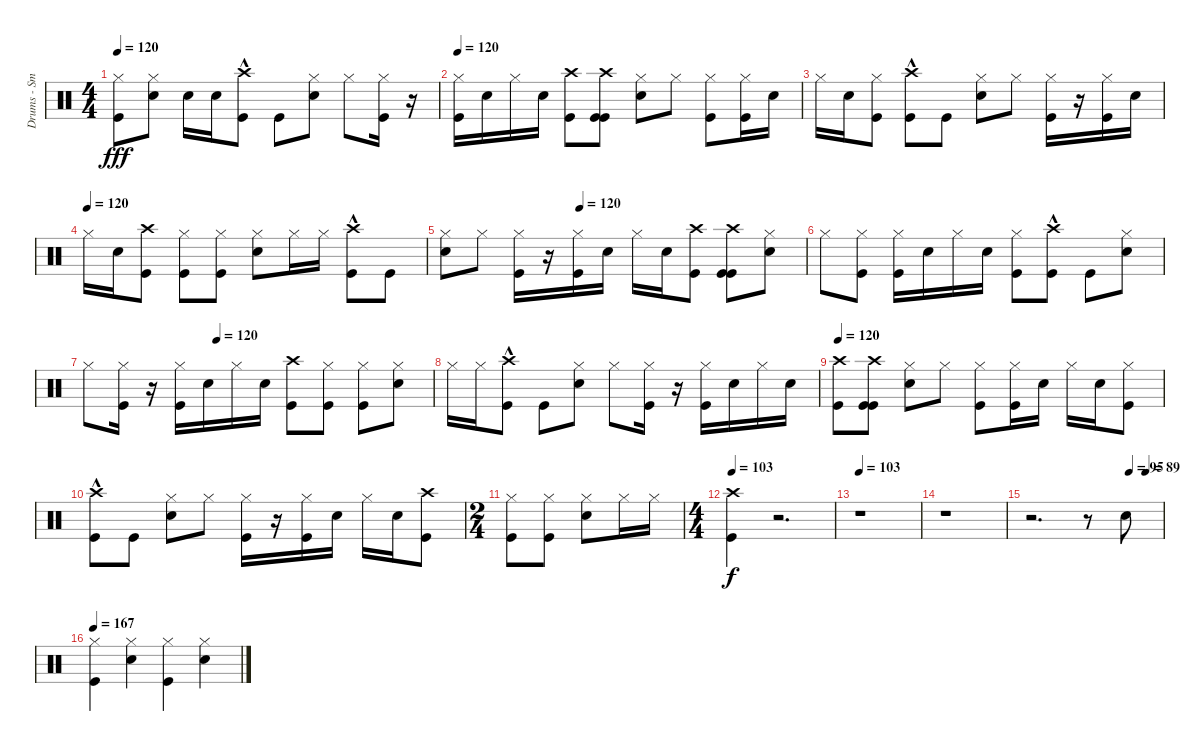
\track ("Drums - Smelly" "Drums - Sm") {instrument percussion}
\staff {score}
\articulation defaults
\ts (4 4)
\tempo 120
\clef neutral
\ks c
("Hi-Hat (closed)" "Kick (hit)").8{dy fff} ("Electric Snare (hit)" "Hi-Hat (closed)").8 "Electric Snare (hit)".16 "Electric Snare (hit)".16 ("Kick (hit)" "Crash high (hit)"{hac}).8 "Kick (hit)".8 ("Hi-Hat (closed)" "Electric Snare (hit)").8 "Hi-Hat (closed)".8 ("Kick (hit)" "Hi-Hat (closed)").16 r.16 |
\tempo 120
("Hi-Hat (closed)" "Kick (hit)").16 "Electric Snare (hit)".16 "Hi-Hat (closed)".16 "Electric Snare (hit)".16 ("Crash high (hit)" "Kick (hit)").8 ("Crash high (hit)" "Kick (hit)" "Kick (hit)").8 ("Hi-Hat (closed)" "Electric Snare (hit)").8 "Hi-Hat (closed)".8 ("Kick (hit)" "Hi-Hat (closed)").8 ("Kick (hit)" "Hi-Hat (closed)").16 "Electric Snare (hit)".16 |
"Hi-Hat (closed)".16 "Electric Snare (hit)".16 ("Hi-Hat (closed)" "Kick (hit)").8 ("Crash high (hit)"{hac} "Kick (hit)").8 "Kick (hit)".8 ("Electric Snare (hit)" "Hi-Hat (closed)").8 "Hi-Hat (closed)".8 ("Hi-Hat (closed)" "Kick (hit)").16 r.16 ("Hi-Hat (closed)" "Kick (hit)").16 "Electric Snare (hit)".16 |
\tempo (120)
"Hi-Hat (closed)".16 "Electric Snare (hit)".16 ("Kick (hit)" "Crash high (hit)").8 ("Kick (hit)" "Hi-Hat (closed)").8 ("Kick (hit)" "Hi-Hat (closed)").8 ("Electric Snare (hit)" "Hi-Hat (closed)").8 "Hi-Hat (closed)".16 "Hi-Hat (closed)".16 ("Crash high (hit)"{hac} "Kick (hit)").8 "Kick (hit)".8 |
\tempo (120 0.375)
("Hi-Hat (closed)" "Electric Snare (hit)").8 "Hi-Hat (closed)".8 ("Kick (hit)" "Hi-Hat (closed)").16 r.16 ("Hi-Hat (closed)" "Kick (hit)").16 "Electric Snare (hit)".16 "Hi-Hat (closed)".16 "Electric Snare (hit)".16 ("Kick (hit)" "Crash high (hit)").8 ("Kick (hit)" "Crash high (hit)" "Kick (hit)").8 ("Hi-Hat (closed)" "Electric Snare (hit)").8 |
"Hi-Hat (closed)".8 ("Kick (hit)" "Hi-Hat (closed)").8 ("Kick (hit)" "Hi-Hat (closed)").16 "Electric Snare (hit)".16 "Hi-Hat (closed)".16 "Electric Snare (hit)".16 ("Hi-Hat (closed)" "Kick (hit)").8 ("Kick (hit)" "Crash high (hit)"{hac}).8 "Kick (hit)".8 ("Electric Snare (hit)" "Hi-Hat (closed)").8 |
\tempo (120 0.375)
"Hi-Hat (closed)".8 ("Kick (hit)" "Hi-Hat (closed)").16 r.16 ("Kick (hit)" "Hi-Hat (closed)").16 "Electric Snare (hit)".16 "Hi-Hat (closed)".16 "Electric Snare (hit)".16 ("Kick (hit)" "Crash high (hit)").8 ("Hi-Hat (closed)" "Kick (hit)").8 ("Kick (hit)" "Hi-Hat (closed)").8 ("Hi-Hat (closed)" "Electric Snare (hit)").8 |
"Hi-Hat (closed)".16 "Hi-Hat (closed)".16 ("Crash high (hit)"{hac} "Kick (hit)").8 "Kick (hit)".8 ("Electric Snare (hit)" "Hi-Hat (closed)").8 "Hi-Hat (closed)".8 ("Hi-Hat (closed)" "Kick (hit)").16 r.16 ("Hi-Hat (closed)" "Kick (hit)").16 "Electric Snare (hit)".16 "Hi-Hat (closed)".16 "Electric Snare (hit)".16 |
\tempo 120
("Crash high (hit)" "Kick (hit)").8 ("Crash high (hit)" "Kick (hit)" "Kick (hit)").8 ("Electric Snare (hit)" "Hi-Hat (closed)").8 "Hi-Hat (closed)".8 ("Hi-Hat (closed)" "Kick (hit)").8 ("Hi-Hat (closed)" "Kick (hit)").16 "Electric Snare (hit)".16 "Hi-Hat (closed)".16 "Electric Snare (hit)".16 ("Kick (hit)" "Hi-Hat (closed)").8 |
("Kick (hit)" "Crash high (hit)"{hac}).8 "Kick (hit)".8 ("Hi-Hat (closed)" "Electric Snare (hit)").8 "Hi-Hat (closed)".8 ("Hi-Hat (closed)" "Kick (hit)").16 r.16 ("Kick (hit)" "Hi-Hat (closed)").16 "Electric Snare (hit)".16 "Hi-Hat (closed)".16 "Electric Snare (hit)".16 ("Kick (hit)" "Crash high (hit)").8 |
\ts (2 4)
("Kick (hit)" "Hi-Hat (closed)").8 ("Hi-Hat (closed)" "Kick (hit)").8 ("Hi-Hat (closed)" "Electric Snare (hit)").8 "Hi-Hat (closed)".16 "Hi-Hat (closed)".16 |
\ts (4 4)
\tempo 103
("Kick (hit)" "Crash high (hit)").4{dy f} r.2{d} |
\tempo 103
r.1 |
r.1 |
\tempo (95 0.75)
\tempo (89 0.875)
r.2{d} r.8 "Electric Snare (hit)".8 |
\tempo 167
("Hi-Hat (closed)" "Kick (hit)").4 ("Electric Snare (hit)" "Hi-Hat (closed)").4 ("Kick (hit)" "Hi-Hat (closed)").4 ("Electric Snare (hit)" "Hi-Hat (closed)").4
